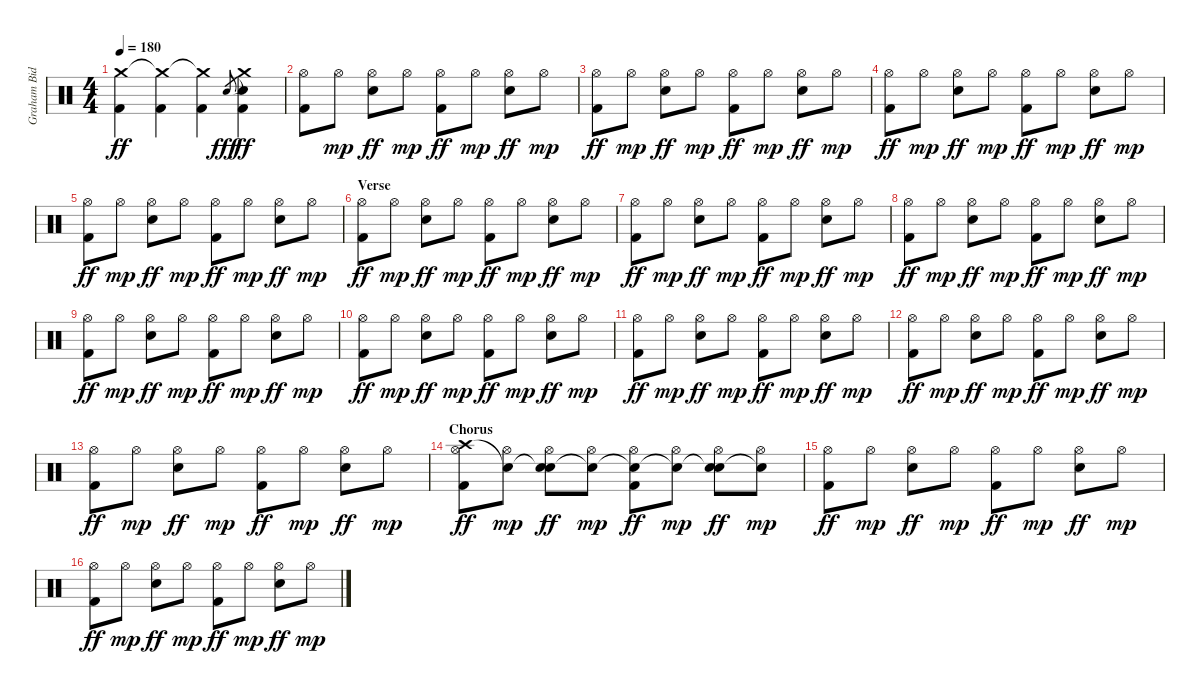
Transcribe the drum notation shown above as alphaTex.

\track ("Graham Bidstrup" "Graham Bid") {instrument percussion}
\staff {score}
\articulation defaults
\ts (4 4)
\tempo 180
\clef neutral
\ks c
("Crash medium (hit)"{t} "Kick (hit) 2").4{dy ff} ("Crash medium (hit)"{t} "Kick (hit) 2").4 ("Crash medium (hit)"{t} "Kick (hit) 2").4 "Snare (hit) 2".8{gr dy fff} ("Crash medium (hit)"{t} "Snare (hit) 2" "Kick (hit) 2").4{dy ff} |
("Hi-Hat (open)" "Kick (hit) 2").8 "Hi-Hat (open)".8{dy mp} ("Hi-Hat (open)" "Snare (hit) 2").8{dy ff} "Hi-Hat (open)".8{dy mp} ("Hi-Hat (open)" "Kick (hit) 2").8{dy ff} "Hi-Hat (open)".8{dy mp} ("Hi-Hat (open)" "Snare (hit) 2").8{dy ff} "Hi-Hat (open)".8{dy mp} |
("Hi-Hat (open)" "Kick (hit) 2").8{dy ff} "Hi-Hat (open)".8{dy mp} ("Hi-Hat (open)" "Snare (hit) 2").8{dy ff} "Hi-Hat (open)".8{dy mp} ("Hi-Hat (open)" "Kick (hit) 2").8{dy ff} "Hi-Hat (open)".8{dy mp} ("Hi-Hat (open)" "Snare (hit) 2").8{dy ff} "Hi-Hat (open)".8{dy mp} |
("Hi-Hat (open)" "Kick (hit) 2").8{dy ff} "Hi-Hat (open)".8{dy mp} ("Hi-Hat (open)" "Snare (hit) 2").8{dy ff} "Hi-Hat (open)".8{dy mp} ("Hi-Hat (open)" "Kick (hit) 2").8{dy ff} "Hi-Hat (open)".8{dy mp} ("Hi-Hat (open)" "Snare (hit) 2").8{dy ff} "Hi-Hat (open)".8{dy mp} |
("Hi-Hat (open)" "Kick (hit) 2").8{dy ff} "Hi-Hat (open)".8{dy mp} ("Hi-Hat (open)" "Snare (hit) 2").8{dy ff} "Hi-Hat (open)".8{dy mp} ("Hi-Hat (open)" "Kick (hit) 2").8{dy ff} "Hi-Hat (open)".8{dy mp} ("Hi-Hat (open)" "Snare (hit) 2").8{dy ff} "Hi-Hat (open)".8{dy mp} |
\section ("" "Verse")
("Hi-Hat (open)" "Kick (hit) 2").8{dy ff} "Hi-Hat (open)".8{dy mp} ("Hi-Hat (open)" "Snare (hit) 2").8{dy ff} "Hi-Hat (open)".8{dy mp} ("Hi-Hat (open)" "Kick (hit) 2").8{dy ff} "Hi-Hat (open)".8{dy mp} ("Hi-Hat (open)" "Snare (hit) 2").8{dy ff} "Hi-Hat (open)".8{dy mp} |
("Hi-Hat (open)" "Kick (hit) 2").8{dy ff} "Hi-Hat (open)".8{dy mp} ("Hi-Hat (open)" "Snare (hit) 2").8{dy ff} "Hi-Hat (open)".8{dy mp} ("Hi-Hat (open)" "Kick (hit) 2").8{dy ff} "Hi-Hat (open)".8{dy mp} ("Hi-Hat (open)" "Snare (hit) 2").8{dy ff} "Hi-Hat (open)".8{dy mp} |
("Hi-Hat (open)" "Kick (hit) 2").8{dy ff} "Hi-Hat (open)".8{dy mp} ("Hi-Hat (open)" "Snare (hit) 2").8{dy ff} "Hi-Hat (open)".8{dy mp} ("Hi-Hat (open)" "Kick (hit) 2").8{dy ff} "Hi-Hat (open)".8{dy mp} ("Hi-Hat (open)" "Snare (hit) 2").8{dy ff} "Hi-Hat (open)".8{dy mp} |
("Hi-Hat (open)" "Kick (hit) 2").8{dy ff} "Hi-Hat (open)".8{dy mp} ("Hi-Hat (open)" "Snare (hit) 2").8{dy ff} "Hi-Hat (open)".8{dy mp} ("Hi-Hat (open)" "Kick (hit) 2").8{dy ff} "Hi-Hat (open)".8{dy mp} ("Hi-Hat (open)" "Snare (hit) 2").8{dy ff} "Hi-Hat (open)".8{dy mp} |
("Hi-Hat (open)" "Kick (hit) 2").8{dy ff} "Hi-Hat (open)".8{dy mp} ("Hi-Hat (open)" "Snare (hit) 2").8{dy ff} "Hi-Hat (open)".8{dy mp} ("Hi-Hat (open)" "Kick (hit) 2").8{dy ff} "Hi-Hat (open)".8{dy mp} ("Hi-Hat (open)" "Snare (hit) 2").8{dy ff} "Hi-Hat (open)".8{dy mp} |
("Hi-Hat (open)" "Kick (hit) 2").8{dy ff} "Hi-Hat (open)".8{dy mp} ("Hi-Hat (open)" "Snare (hit) 2").8{dy ff} "Hi-Hat (open)".8{dy mp} ("Hi-Hat (open)" "Kick (hit) 2").8{dy ff} "Hi-Hat (open)".8{dy mp} ("Hi-Hat (open)" "Snare (hit) 2").8{dy ff} "Hi-Hat (open)".8{dy mp} |
("Hi-Hat (open)" "Kick (hit) 2").8{dy ff} "Hi-Hat (open)".8{dy mp} ("Hi-Hat (open)" "Snare (hit) 2").8{dy ff} "Hi-Hat (open)".8{dy mp} ("Hi-Hat (open)" "Kick (hit) 2").8{dy ff} "Hi-Hat (open)".8{dy mp} ("Hi-Hat (open)" "Snare (hit) 2").8{dy ff} "Hi-Hat (open)".8{dy mp} |
("Hi-Hat (open)" "Kick (hit) 2").8{dy ff} "Hi-Hat (open)".8{dy mp} ("Hi-Hat (open)" "Snare (hit) 2").8{dy ff} "Hi-Hat (open)".8{dy mp} ("Hi-Hat (open)" "Kick (hit) 2").8{dy ff} "Hi-Hat (open)".8{dy mp} ("Hi-Hat (open)" "Snare (hit) 2").8{dy ff} "Hi-Hat (open)".8{dy mp} |
\section ("" "Chorus")
("Crash high (hit)" "Hi-Hat (open)" "Kick (hit) 2").8{dy ff} ("Snare (hit)"{t} "Hi-Hat (open)").8{dy mp} ("Snare (hit)"{t} "Hi-Hat (open)" "Snare (hit) 2").8{dy ff} ("Snare (hit)"{t} "Hi-Hat (open)").8{dy mp} ("Snare (hit)"{t} "Hi-Hat (open)" "Kick (hit) 2").8{dy ff} ("Snare (hit)"{t} "Hi-Hat (open)").8{dy mp} ("Snare (hit)"{t} "Hi-Hat (open)" "Snare (hit) 2").8{dy ff} ("Snare (hit)"{t} "Hi-Hat (open)").8{dy mp} |
("Hi-Hat (open)" "Kick (hit) 2").8{dy ff} "Hi-Hat (open)".8{dy mp} ("Hi-Hat (open)" "Snare (hit) 2").8{dy ff} "Hi-Hat (open)".8{dy mp} ("Hi-Hat (open)" "Kick (hit) 2").8{dy ff} "Hi-Hat (open)".8{dy mp} ("Hi-Hat (open)" "Snare (hit) 2").8{dy ff} "Hi-Hat (open)".8{dy mp} |
("Hi-Hat (open)" "Kick (hit) 2").8{dy ff} "Hi-Hat (open)".8{dy mp} ("Hi-Hat (open)" "Snare (hit) 2").8{dy ff} "Hi-Hat (open)".8{dy mp} ("Hi-Hat (open)" "Kick (hit) 2").8{dy ff} "Hi-Hat (open)".8{dy mp} ("Hi-Hat (open)" "Snare (hit) 2").8{dy ff} "Hi-Hat (open)".8{dy mp}
